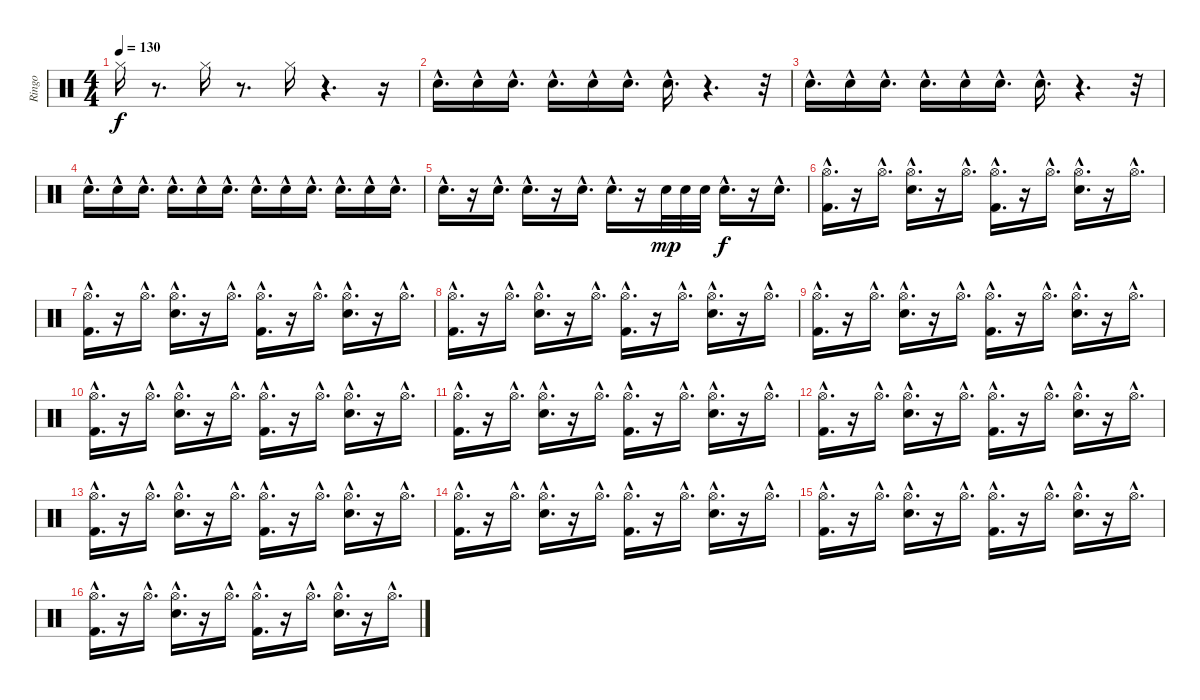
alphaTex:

\track ("Ringo" "Ringo") {instrument percussion}
\staff {score}
\articulation defaults
\ts (4 4)
\tempo 130
\clef neutral
\ks c "Hi-Hat (closed)".16{dy f}
r.8{d} "Hi-Hat (closed)".16 r.8{d} "Hi-Hat (closed)".16 r.4{d} r.16 |
"Snare (hit) 2"{hac}.16{d} "Snare (hit) 2"{hac}.16 "Snare (hit) 2"{hac}.16{d} "Snare (hit) 2"{hac}.16{d} "Snare (hit) 2"{hac}.16 "Snare (hit) 2"{hac}.16{d} "Snare (hit) 2"{hac}.16{d} r.4{d} r.32 |
"Snare (hit) 2"{hac}.16{d} "Snare (hit) 2"{hac}.16 "Snare (hit) 2"{hac}.16{d} "Snare (hit) 2"{hac}.16{d} "Snare (hit) 2"{hac}.16 "Snare (hit) 2"{hac}.16{d} "Snare (hit) 2"{hac}.16{d} r.4{d} r.32 |
"Snare (hit) 2"{hac}.16{d} "Snare (hit) 2"{hac}.16 "Snare (hit) 2"{hac}.16{d} "Snare (hit) 2"{hac}.16{d} "Snare (hit) 2"{hac}.16 "Snare (hit) 2"{hac}.16{d} "Snare (hit) 2"{hac}.16{d} "Snare (hit) 2"{hac}.16 "Snare (hit) 2"{hac}.16{d} "Snare (hit) 2"{hac}.16{d} "Snare (hit) 2"{hac}.16 "Snare (hit) 2"{hac}.16{d} |
"Snare (hit) 2"{hac}.16{d} r.16 "Snare (hit) 2"{hac}.16{d} "Snare (hit) 2"{hac}.16{d} r.16 "Snare (hit) 2"{hac}.16{d} "Snare (hit) 2"{hac}.16{d} r.16 "Snare (hit) 2".32{dy mp} "Snare (hit) 2".32 "Snare (hit) 2".32 "Snare (hit) 2"{hac}.16{d dy f} r.16 "Snare (hit) 2"{hac}.16{d} |
("Hi-Hat (open)"{hac} "Kick (hit) 2"{hac}).16{d} r.16 "Hi-Hat (open)"{hac}.16{d} ("Hi-Hat (open)"{hac} "Snare (hit) 2"{hac}).16{d} r.16 "Hi-Hat (open)"{hac}.16{d} ("Hi-Hat (open)"{hac} "Kick (hit) 2"{hac}).16{d} r.16 "Hi-Hat (open)"{hac}.16{d} ("Hi-Hat (open)"{hac} "Snare (hit) 2"{hac}).16{d} r.16 "Hi-Hat (open)"{hac}.16{d} |
("Kick (hit) 2"{hac} "Hi-Hat (open)"{hac}).16{d} r.16 "Hi-Hat (open)"{hac}.16{d} ("Snare (hit) 2"{hac} "Hi-Hat (open)"{hac}).16{d} r.16 "Hi-Hat (open)"{hac}.16{d} ("Kick (hit) 2"{hac} "Hi-Hat (open)"{hac}).16{d} r.16 "Hi-Hat (open)"{hac}.16{d} ("Snare (hit) 2"{hac} "Hi-Hat (open)"{hac}).16{d} r.16 "Hi-Hat (open)"{hac}.16{d} |
("Kick (hit) 2"{hac} "Hi-Hat (open)"{hac}).16{d} r.16 "Hi-Hat (open)"{hac}.16{d} ("Snare (hit) 2"{hac} "Hi-Hat (open)"{hac}).16{d} r.16 "Hi-Hat (open)"{hac}.16{d} ("Kick (hit) 2"{hac} "Hi-Hat (open)"{hac}).16{d} r.16 "Hi-Hat (open)"{hac}.16{d} ("Snare (hit) 2"{hac} "Hi-Hat (open)"{hac}).16{d} r.16 "Hi-Hat (open)"{hac}.16{d} |
("Kick (hit) 2"{hac} "Hi-Hat (open)"{hac}).16{d} r.16 "Hi-Hat (open)"{hac}.16{d} ("Snare (hit) 2"{hac} "Hi-Hat (open)"{hac}).16{d} r.16 "Hi-Hat (open)"{hac}.16{d} ("Kick (hit) 2"{hac} "Hi-Hat (open)"{hac}).16{d} r.16 "Hi-Hat (open)"{hac}.16{d} ("Snare (hit) 2"{hac} "Hi-Hat (open)"{hac}).16{d} r.16 "Hi-Hat (open)"{hac}.16{d} |
("Kick (hit) 2"{hac} "Hi-Hat (open)"{hac}).16{d} r.16 "Hi-Hat (open)"{hac}.16{d} ("Snare (hit) 2"{hac} "Hi-Hat (open)"{hac}).16{d} r.16 "Hi-Hat (open)"{hac}.16{d} ("Kick (hit) 2"{hac} "Hi-Hat (open)"{hac}).16{d} r.16 "Hi-Hat (open)"{hac}.16{d} ("Snare (hit) 2"{hac} "Hi-Hat (open)"{hac}).16{d} r.16 "Hi-Hat (open)"{hac}.16{d} |
("Hi-Hat (open)"{hac} "Kick (hit) 2"{hac}).16{d} r.16 "Hi-Hat (open)"{hac}.16{d} ("Hi-Hat (open)"{hac} "Snare (hit) 2"{hac}).16{d} r.16 "Hi-Hat (open)"{hac}.16{d} ("Hi-Hat (open)"{hac} "Kick (hit) 2"{hac}).16{d} r.16 "Hi-Hat (open)"{hac}.16{d} ("Hi-Hat (open)"{hac} "Snare (hit) 2"{hac}).16{d} r.16 "Hi-Hat (open)"{hac}.16{d} |
("Hi-Hat (open)"{hac} "Kick (hit) 2"{hac}).16{d} r.16 "Hi-Hat (open)"{hac}.16{d} ("Hi-Hat (open)"{hac} "Snare (hit) 2"{hac}).16{d} r.16 "Hi-Hat (open)"{hac}.16{d} ("Hi-Hat (open)"{hac} "Kick (hit) 2"{hac}).16{d} r.16 "Hi-Hat (open)"{hac}.16{d} ("Hi-Hat (open)"{hac} "Snare (hit) 2"{hac}).16{d} r.16 "Hi-Hat (open)"{hac}.16{d} |
("Hi-Hat (open)"{hac} "Kick (hit) 2"{hac}).16{d} r.16 "Hi-Hat (open)"{hac}.16{d} ("Hi-Hat (open)"{hac} "Snare (hit) 2"{hac}).16{d} r.16 "Hi-Hat (open)"{hac}.16{d} ("Hi-Hat (open)"{hac} "Kick (hit) 2"{hac}).16{d} r.16 "Hi-Hat (open)"{hac}.16{d} ("Hi-Hat (open)"{hac} "Snare (hit) 2"{hac}).16{d} r.16 "Hi-Hat (open)"{hac}.16{d} |
("Kick (hit) 2"{hac} "Hi-Hat (open)"{hac}).16{d} r.16 "Hi-Hat (open)"{hac}.16{d} ("Snare (hit) 2"{hac} "Hi-Hat (open)"{hac}).16{d} r.16 "Hi-Hat (open)"{hac}.16{d} ("Kick (hit) 2"{hac} "Hi-Hat (open)"{hac}).16{d} r.16 "Hi-Hat (open)"{hac}.16{d} ("Snare (hit) 2"{hac} "Hi-Hat (open)"{hac}).16{d} r.16 "Hi-Hat (open)"{hac}.16{d} |
("Hi-Hat (open)"{hac} "Kick (hit) 2"{hac}).16{d} r.16 "Hi-Hat (open)"{hac}.16{d} ("Hi-Hat (open)"{hac} "Snare (hit) 2"{hac}).16{d} r.16 "Hi-Hat (open)"{hac}.16{d} ("Hi-Hat (open)"{hac} "Kick (hit) 2"{hac}).16{d} r.16 "Hi-Hat (open)"{hac}.16{d} ("Hi-Hat (open)"{hac} "Snare (hit) 2"{hac}).16{d} r.16 "Hi-Hat (open)"{hac}.16{d} |
("Hi-Hat (open)"{hac} "Kick (hit) 2"{hac}).16{d} r.16 "Hi-Hat (open)"{hac}.16{d} ("Hi-Hat (open)"{hac} "Snare (hit) 2"{hac}).16{d} r.16 "Hi-Hat (open)"{hac}.16{d} ("Hi-Hat (open)"{hac} "Kick (hit) 2"{hac}).16{d} r.16 "Hi-Hat (open)"{hac}.16{d} ("Hi-Hat (open)"{hac} "Snare (hit) 2"{hac}).16{d} r.16 "Hi-Hat (open)"{hac}.16{d}
